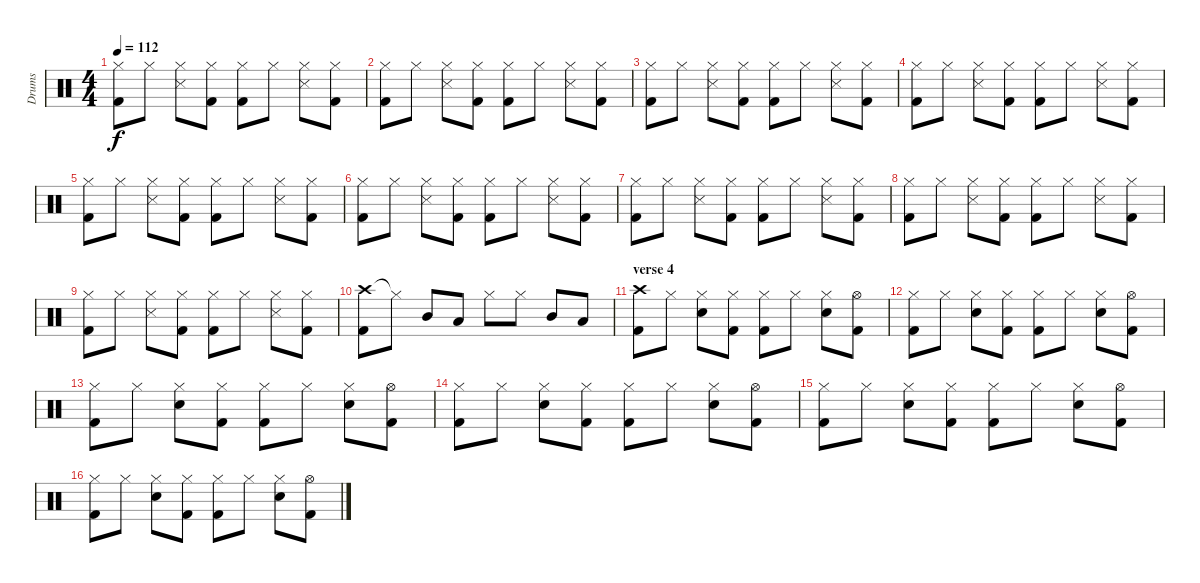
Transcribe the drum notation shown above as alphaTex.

\track ("Drums" "Drums") {instrument percussion}
\staff {score}
\articulation defaults
\ts (4 4)
\tempo 112
\clef neutral
\ks c
("Hi-Hat (closed)" "Kick (hit) 2").8{dy f} "Hi-Hat (closed)".8 ("Hi-Hat (closed)" "Snare (side stick) 3").8 ("Hi-Hat (closed)" "Kick (hit) 2").8 ("Hi-Hat (closed)" "Kick (hit) 2").8 "Hi-Hat (closed)".8 ("Hi-Hat (closed)" "Snare (side stick) 3").8 ("Hi-Hat (closed)" "Kick (hit) 2").8 |
("Hi-Hat (closed)" "Kick (hit) 2").8 "Hi-Hat (closed)".8 ("Hi-Hat (closed)" "Snare (side stick) 3").8 ("Hi-Hat (closed)" "Kick (hit) 2").8 ("Hi-Hat (closed)" "Kick (hit) 2").8 "Hi-Hat (closed)".8 ("Hi-Hat (closed)" "Snare (side stick) 3").8 ("Hi-Hat (closed)" "Kick (hit) 2").8 |
("Hi-Hat (closed)" "Kick (hit) 2").8 "Hi-Hat (closed)".8 ("Hi-Hat (closed)" "Snare (side stick) 3").8 ("Hi-Hat (closed)" "Kick (hit) 2").8 ("Hi-Hat (closed)" "Kick (hit) 2").8 "Hi-Hat (closed)".8 ("Hi-Hat (closed)" "Snare (side stick) 3").8 ("Hi-Hat (closed)" "Kick (hit) 2").8 |
("Hi-Hat (closed)" "Kick (hit) 2").8 "Hi-Hat (closed)".8 ("Hi-Hat (closed)" "Snare (side stick) 3").8 ("Hi-Hat (closed)" "Kick (hit) 2").8 ("Hi-Hat (closed)" "Kick (hit) 2").8 "Hi-Hat (closed)".8 ("Hi-Hat (closed)" "Snare (side stick) 3").8 ("Hi-Hat (closed)" "Kick (hit) 2").8 |
("Hi-Hat (closed)" "Kick (hit) 2").8 "Hi-Hat (closed)".8 ("Hi-Hat (closed)" "Snare (side stick) 3").8 ("Hi-Hat (closed)" "Kick (hit) 2").8 ("Hi-Hat (closed)" "Kick (hit) 2").8 "Hi-Hat (closed)".8 ("Hi-Hat (closed)" "Snare (side stick) 3").8 ("Hi-Hat (closed)" "Kick (hit) 2").8 |
("Hi-Hat (closed)" "Kick (hit) 2").8 "Hi-Hat (closed)".8 ("Hi-Hat (closed)" "Snare (side stick) 3").8 ("Hi-Hat (closed)" "Kick (hit) 2").8 ("Hi-Hat (closed)" "Kick (hit) 2").8 "Hi-Hat (closed)".8 ("Hi-Hat (closed)" "Snare (side stick) 3").8 ("Hi-Hat (closed)" "Kick (hit) 2").8 |
("Hi-Hat (closed)" "Kick (hit) 2").8 "Hi-Hat (closed)".8 ("Hi-Hat (closed)" "Snare (side stick) 3").8 ("Hi-Hat (closed)" "Kick (hit) 2").8 ("Hi-Hat (closed)" "Kick (hit) 2").8 "Hi-Hat (closed)".8 ("Hi-Hat (closed)" "Snare (side stick) 3").8 ("Hi-Hat (closed)" "Kick (hit) 2").8 |
("Hi-Hat (closed)" "Kick (hit) 2").8 "Hi-Hat (closed)".8 ("Hi-Hat (closed)" "Snare (side stick) 3").8 ("Hi-Hat (closed)" "Kick (hit) 2").8 ("Hi-Hat (closed)" "Kick (hit) 2").8 "Hi-Hat (closed)".8 ("Hi-Hat (closed)" "Snare (side stick) 3").8 ("Hi-Hat (closed)" "Kick (hit) 2").8 |
("Hi-Hat (closed)" "Kick (hit) 2").8 "Hi-Hat (closed)".8 ("Hi-Hat (closed)" "Snare (side stick) 3").8 ("Hi-Hat (closed)" "Kick (hit) 2").8 ("Hi-Hat (closed)" "Kick (hit) 2").8 "Hi-Hat (closed)".8 ("Hi-Hat (closed)" "Snare (side stick) 3").8 ("Hi-Hat (closed)" "Kick (hit) 2").8 |
("Crash high (hit)" "Kick (hit) 2").8 "Hi-Hat (closed)"{t}.8 "Mid Tom (hit)".8 "Low Tom (hit)".8 "Hi-Hat (closed)".8 "Hi-Hat (closed)".8 "Mid Tom (hit)".8 "Low Tom (hit)".8 |
\section ("" "verse 4")
("Crash high (hit)" "Kick (hit) 2").8 "Hi-Hat (closed)".8 ("Hi-Hat (closed)" "Electric Snare (hit)").8 ("Hi-Hat (closed)" "Kick (hit) 2").8 ("Hi-Hat (closed)" "Kick (hit) 2").8 "Hi-Hat (closed)".8 ("Hi-Hat (closed)" "Electric Snare (hit)").8 ("Hi-Hat (open)" "Kick (hit) 2").8 |
("Hi-Hat (closed)" "Kick (hit) 2").8 "Hi-Hat (closed)".8 ("Hi-Hat (closed)" "Electric Snare (hit)").8 ("Hi-Hat (closed)" "Kick (hit) 2").8 ("Hi-Hat (closed)" "Kick (hit) 2").8 "Hi-Hat (closed)".8 ("Hi-Hat (closed)" "Electric Snare (hit)").8 ("Hi-Hat (open)" "Kick (hit) 2").8 |
("Hi-Hat (closed)" "Kick (hit) 2").8 "Hi-Hat (closed)".8 ("Hi-Hat (closed)" "Electric Snare (hit)").8 ("Hi-Hat (closed)" "Kick (hit) 2").8 ("Hi-Hat (closed)" "Kick (hit) 2").8 "Hi-Hat (closed)".8 ("Hi-Hat (closed)" "Electric Snare (hit)").8 ("Hi-Hat (open)" "Kick (hit) 2").8 |
("Hi-Hat (closed)" "Kick (hit) 2").8 "Hi-Hat (closed)".8 ("Hi-Hat (closed)" "Electric Snare (hit)").8 ("Hi-Hat (closed)" "Kick (hit) 2").8 ("Hi-Hat (closed)" "Kick (hit) 2").8 "Hi-Hat (closed)".8 ("Hi-Hat (closed)" "Electric Snare (hit)").8 ("Hi-Hat (open)" "Kick (hit) 2").8 |
("Hi-Hat (closed)" "Kick (hit) 2").8 "Hi-Hat (closed)".8 ("Hi-Hat (closed)" "Electric Snare (hit)").8 ("Hi-Hat (closed)" "Kick (hit) 2").8 ("Hi-Hat (closed)" "Kick (hit) 2").8 "Hi-Hat (closed)".8 ("Hi-Hat (closed)" "Electric Snare (hit)").8 ("Hi-Hat (open)" "Kick (hit) 2").8 |
("Hi-Hat (closed)" "Kick (hit) 2").8 "Hi-Hat (closed)".8 ("Hi-Hat (closed)" "Electric Snare (hit)").8 ("Hi-Hat (closed)" "Kick (hit) 2").8 ("Hi-Hat (closed)" "Kick (hit) 2").8 "Hi-Hat (closed)".8 ("Hi-Hat (closed)" "Electric Snare (hit)").8 ("Hi-Hat (open)" "Kick (hit) 2").8
